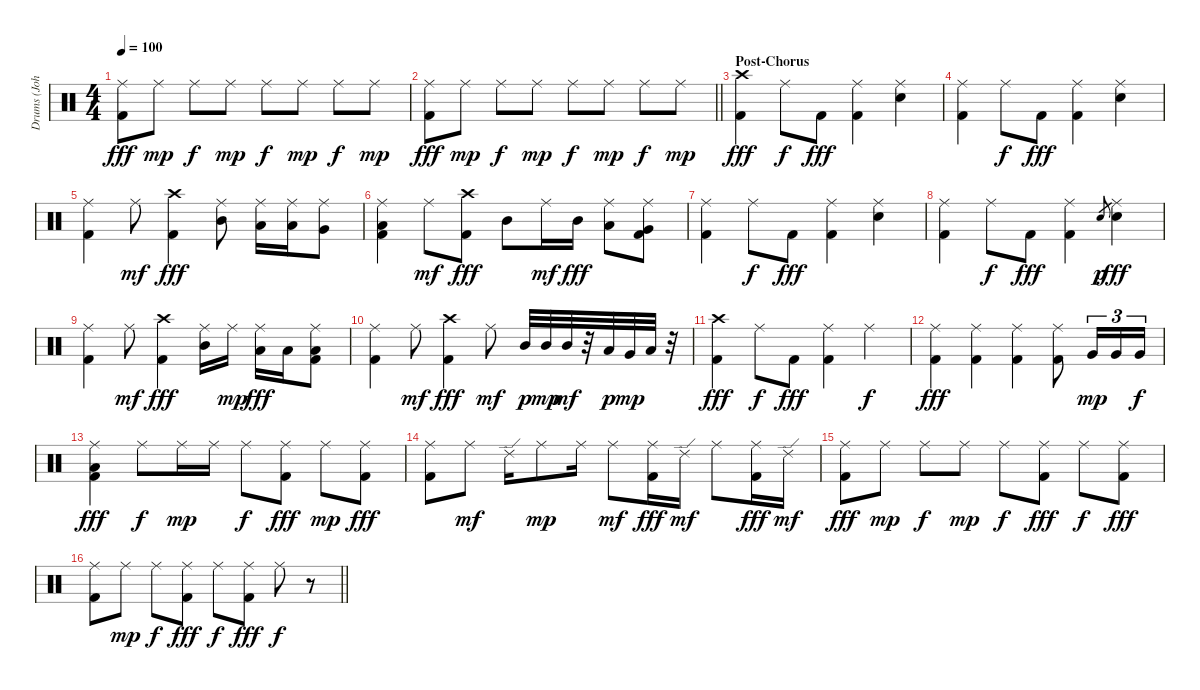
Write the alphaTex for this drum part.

\track ("Drums (John Siomos)" "Drums (Joh") {instrument percussion}
\staff {score}
\articulation defaults
\ts (4 4)
\tempo 100
\clef neutral
\ks c
("Ride (middle)" "Kick (hit) 2").8{dy fff} "Ride (middle)".8{dy mp} "Ride (middle)".8{dy f} "Ride (middle)".8{dy mp} "Ride (middle)".8{dy f} "Ride (middle)".8{dy mp} "Ride (middle)".8{dy f} "Ride (middle)".8{dy mp} |
\barLineRight lightlight
("Ride (middle)" "Kick (hit) 2").8{dy fff} "Ride (middle)".8{dy mp} "Ride (middle)".8{dy f} "Ride (middle)".8{dy mp} "Ride (middle)".8{dy f} "Ride (middle)".8{dy mp} "Ride (middle)".8{dy f} "Ride (middle)".8{dy mp} |
\section ("" "Post-Chorus")
("Crash high (hit)" "Kick (hit) 2").4{dy fff} "Ride (middle)".8{dy f} "Kick (hit) 2".8{dy fff} ("Ride (middle)" "Kick (hit) 2").4 ("Ride (middle)" "Snare (hit) 2").4 |
("Ride (middle)" "Kick (hit) 2").4 "Ride (middle)".8{dy f} "Kick (hit) 2".8{dy fff} ("Ride (middle)" "Kick (hit) 2").4 ("Ride (middle)" "Snare (hit) 2").4 |
("Ride (middle)" "Kick (hit) 2").4 "Ride (middle)".8{dy mf} ("Crash high (hit)" "Kick (hit) 2").4{dy fff} ("Ride (middle)" "Mid Tom (hit)").8 ("Ride (middle)" "Low Tom (hit)").16 ("Ride (middle)" "Low Tom (hit)").16 ("Ride (middle)" "Very Low Tom (hit)").8 |
("Ride (middle)" "Low Floor Tom (hit)" "Kick (hit) 2").4 "Ride (middle)".8{dy mf} ("Crash high (hit)" "Kick (hit) 2").8{dy fff} "Mid Tom (hit)".8 "Ride (middle)".16{dy mf} "Mid Tom (hit)".16{dy fff} ("Ride (middle)" "Low Tom (hit)").8 ("Ride (middle)" "Very Low Tom (hit)" "Kick (hit) 2").8 |
("Ride (middle)" "Kick (hit) 2").4 "Ride (middle)".8{dy f} "Kick (hit) 2".8{dy fff} ("Ride (middle)" "Kick (hit) 2").4 ("Ride (middle)" "Snare (hit) 2").4 |
("Ride (middle)" "Kick (hit) 2").4 "Ride (middle)".8{dy f} "Kick (hit) 2".8{dy fff} ("Ride (middle)" "Kick (hit) 2").4 "Snare (hit) 2".8{gr dy p} ("Ride (middle)" "Snare (hit) 2").4{dy fff} |
("Ride (middle)" "Kick (hit) 2").4 "Ride (middle)".8{dy mf} ("Crash high (hit)" "Kick (hit) 2").4{dy fff} ("Ride (middle)" "Mid Tom (hit)").16 "Ride (middle)".16{dy mp} ("Ride (middle)" "Low Tom (hit)").16{dy fff} "Low Tom (hit)".16 ("Ride (middle)" "Low Tom (hit)" "Kick (hit) 2").8 |
("Ride (middle)" "Kick (hit) 2").4 "Ride (middle)".8{dy mf} ("Crash high (hit)" "Kick (hit) 2").4{dy fff} "Ride (middle)".8{dy mf} "Mid Tom (hit)".32{dy p} "Mid Tom (hit)".32{dy mp} "Mid Tom (hit)".32{dy mf} r.32 "Low Tom (hit)".32{dy p} "Very Low Tom (hit)".32{dy mp} "Low Floor Tom (hit)".32 r.32 |
("Crash high (hit)" "Kick (hit) 2").4{dy fff} "Ride (middle)".8{dy f} "Kick (hit) 2".8{dy fff} ("Ride (middle)" "Kick (hit) 2").4 "Ride (middle)".4{dy f} |
("Ride (middle)" "Kick (hit) 2").4{dy fff} ("Ride (middle)" "Kick (hit) 2").4 ("Ride (middle)" "Kick (hit) 2").4 ("Ride (middle)" "Kick (hit) 2").8 "Very Low Tom (hit)".16{tu (3 2) dy mp} "Very Low Tom (hit)".16{tu (3 2)} "Very Low Tom (hit)".16{tu (3 2) dy f} |
("Ride (middle)" "Low Floor Tom (hit)" "Kick (hit) 2").4{dy fff} "Ride (middle)".8{dy f} "Ride (middle)".16{dy mp} "Ride (middle)".16 "Ride (middle)".8{dy f} ("Ride (middle)" "Kick (hit) 2").8{dy fff} "Ride (middle)".8{dy mp} ("Ride (middle)" "Kick (hit) 2").8{dy fff} |
("Ride (middle)" "Kick (hit) 2").8 "Ride (middle)".8{dy mf} "Ride (edge) 2".16 "Ride (middle)".8{dy mp} "Ride (middle)".16 "Ride (middle)".8{dy mf} ("Ride (middle)" "Kick (hit) 2").16{dy fff} "Ride (edge) 2".16{dy mf} "Ride (middle)".8 ("Ride (middle)" "Kick (hit) 2").16{dy fff} "Ride (edge) 2".16{dy mf} |
("Ride (middle)" "Kick (hit) 2").8{dy fff} "Ride (middle)".8{dy mp} "Ride (middle)".8{dy f} "Ride (middle)".8{dy mp} "Ride (middle)".8{dy f} ("Ride (middle)" "Kick (hit) 2").8{dy fff} "Ride (middle)".8{dy f} ("Ride (middle)" "Kick (hit) 2").8{dy fff} |
\barLineRight lightlight
("Ride (middle)" "Kick (hit) 2").8 "Ride (middle)".8{dy mp} "Ride (middle)".8{dy f} ("Ride (middle)" "Kick (hit) 2").8{dy fff} "Ride (middle)".8{dy f} ("Ride (middle)" "Kick (hit) 2").8{dy fff} "Ride (middle)".8{dy f} r.8
